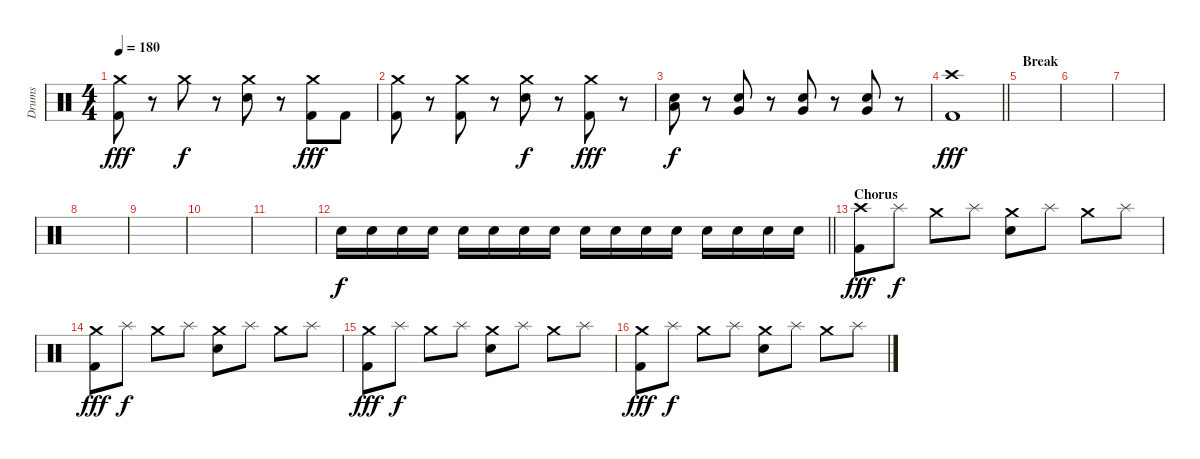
\track ("Drums" "Drums") {instrument percussion}
\staff {score}
\articulation defaults
\ts (4 4)
\tempo 180
\clef neutral
\ks c
("Crash medium (hit)" "Kick (hit) 2").8{dy fff} r.8 "Crash medium (hit)".8{dy f} r.8 ("Crash medium (hit)" "Electric Snare (hit)").8 r.8 ("Crash medium (hit)" "Kick (hit) 2").8{dy fff} "Kick (hit) 2".8 |
("Crash medium (hit)" "Kick (hit) 2").8 r.8 ("Crash medium (hit)" "Kick (hit) 2").8 r.8 ("Crash medium (hit)" "Electric Snare (hit)").8{dy f} r.8 ("Crash medium (hit)" "Kick (hit) 2").8{dy fff} r.8 |
("Low Tom (hit)" "Electric Snare (hit)").8{dy f} r.8 ("Very Low Tom (hit)" "Electric Snare (hit)").8 r.8 ("Very Low Tom (hit)" "Electric Snare (hit)").8 r.8 ("Very Low Tom (hit)" "Electric Snare (hit)").8 r.8 |
\barLineRight lightlight
("Crash high (hit)" "Kick (hit) 2").1{dy fff} |
\section ("" "Break")
|
|
|
|
|
|
|
\barLineRight lightlight "Snare (hit) 2".16{dy f} "Snare (hit) 2".16 "Snare (hit) 2".16 "Snare (hit) 2".16 "Snare (hit) 2".16 "Snare (hit) 2".16 "Snare (hit) 2".16 "Snare (hit) 2".16 "Snare (hit) 2".16 "Snare (hit) 2".16 "Snare (hit) 2".16 "Snare (hit) 2".16 "Snare (hit) 2".16 "Snare (hit) 2".16 "Snare (hit) 2".16 "Snare (hit) 2".16
|
\section ("" "Chorus")
("Crash high (hit)" "Kick (hit) 2").8{dy fff} "Splash (hit)".8{dy f} "Crash medium (hit)".8 "Splash (hit)".8 ("Crash medium (hit)" "Electric Snare (hit)").8 "Splash (hit)".8 "Crash medium (hit)".8 "Splash (hit)".8 |
("Crash medium (hit)" "Kick (hit) 2").8{dy fff} "Splash (hit)".8{dy f} "Crash medium (hit)".8 "Splash (hit)".8 ("Crash medium (hit)" "Electric Snare (hit)").8 "Splash (hit)".8 "Crash medium (hit)".8 "Splash (hit)".8 |
("Crash medium (hit)" "Kick (hit) 2").8{dy fff} "Splash (hit)".8{dy f} "Crash medium (hit)".8 "Splash (hit)".8 ("Crash medium (hit)" "Electric Snare (hit)").8 "Splash (hit)".8 "Crash medium (hit)".8 "Splash (hit)".8 |
("Crash medium (hit)" "Kick (hit) 2").8{dy fff} "Splash (hit)".8{dy f} "Crash medium (hit)".8 "Splash (hit)".8 ("Crash medium (hit)" "Electric Snare (hit)").8 "Splash (hit)".8 "Crash medium (hit)".8 "Splash (hit)".8
